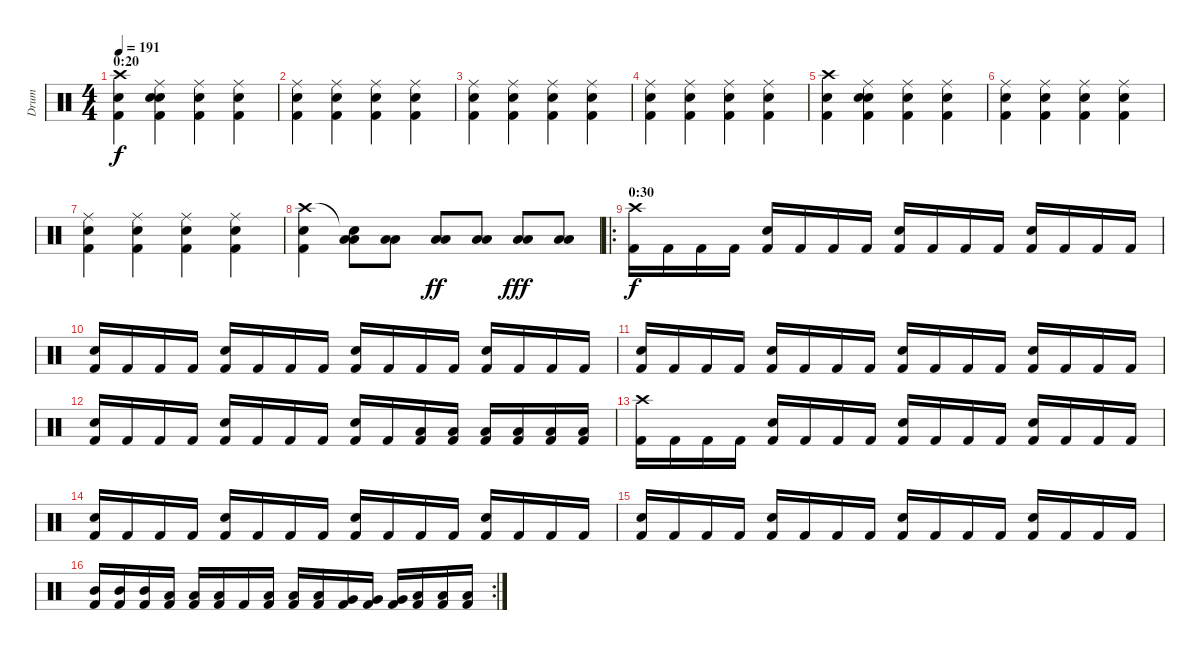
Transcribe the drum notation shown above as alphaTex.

\track ("Drum" "Drum") {instrument percussion}
\staff {score}
\articulation defaults
\ts (4 4)
\section ("" "0:20")
\tempo 191
\clef neutral
\ks c
("Kick (hit) 2" "Snare (hit) 2" "Crash high (hit)").4{dy f} ("Kick (hit) 2" "Snare (hit) 2" "Ride (middle)" "Snare (hit)").4 ("Kick (hit) 2" "Snare (hit) 2" "Ride (middle)").4 ("Kick (hit) 2" "Snare (hit) 2" "Ride (middle)").4 |
("Kick (hit) 2" "Snare (hit) 2" "Ride (middle)").4 ("Kick (hit) 2" "Snare (hit) 2" "Ride (middle)").4 ("Kick (hit) 2" "Snare (hit) 2" "Ride (middle)").4 ("Kick (hit) 2" "Snare (hit) 2" "Ride (middle)").4 |
("Kick (hit) 2" "Snare (hit) 2" "Ride (middle)").4 ("Kick (hit) 2" "Snare (hit) 2" "Ride (middle)").4 ("Kick (hit) 2" "Snare (hit) 2" "Ride (middle)").4 ("Kick (hit) 2" "Snare (hit) 2" "Ride (middle)").4 |
("Kick (hit) 2" "Snare (hit) 2" "Ride (middle)").4 ("Kick (hit) 2" "Snare (hit) 2" "Ride (middle)").4 ("Kick (hit) 2" "Snare (hit) 2" "Ride (middle)").4 ("Kick (hit) 2" "Snare (hit) 2" "Ride (middle)").4 |
("Kick (hit) 2" "Snare (hit) 2" "Crash high (hit)").4 ("Kick (hit) 2" "Snare (hit) 2" "Ride (middle)" "Snare (hit)").4 ("Kick (hit) 2" "Snare (hit) 2" "Ride (middle)").4 ("Kick (hit) 2" "Snare (hit) 2" "Ride (middle)").4 |
("Kick (hit) 2" "Snare (hit) 2" "Ride (middle)").4 ("Kick (hit) 2" "Snare (hit) 2" "Ride (middle)").4 ("Kick (hit) 2" "Snare (hit) 2" "Ride (middle)").4 ("Kick (hit) 2" "Snare (hit) 2" "Ride (middle)").4 |
("Kick (hit) 2" "Snare (hit) 2" "Ride (middle)").4 ("Kick (hit) 2" "Snare (hit) 2" "Ride (middle)").4 ("Kick (hit) 2" "Snare (hit) 2" "Ride (middle)").4 ("Kick (hit) 2" "Snare (hit) 2" "Ride (middle)").4 |
("Kick (hit) 2" "Snare (hit) 2" "Crash high (hit)").4 ("Low Floor Tom (hit)" "Low Floor Tom (hit)" "Snare (hit)"{t}).8 ("Low Floor Tom (hit)" "Low Floor Tom (hit)").8 ("Low Floor Tom (hit)" "Low Floor Tom (hit)").8{dy ff} ("Low Floor Tom (hit)" "Low Floor Tom (hit)").8 ("Low Floor Tom (hit)" "Low Floor Tom (hit)").8{dy fff} ("Low Floor Tom (hit)" "Low Floor Tom (hit)").8 |
\ro
\section ("" "0:30")
("Kick (hit) 2" "Crash high (hit)").16{dy f} "Kick (hit) 2".16 "Kick (hit) 2".16 "Kick (hit) 2".16 ("Kick (hit) 2" "Snare (hit) 2").16 "Kick (hit) 2".16 "Kick (hit) 2".16 "Kick (hit) 2".16 ("Kick (hit) 2" "Snare (hit) 2").16 "Kick (hit) 2".16 "Kick (hit) 2".16 "Kick (hit) 2".16 ("Kick (hit) 2" "Snare (hit) 2").16 "Kick (hit) 2".16 "Kick (hit) 2".16 "Kick (hit) 2".16 |
("Kick (hit) 2" "Snare (hit) 2").16 "Kick (hit) 2".16 "Kick (hit) 2".16 "Kick (hit) 2".16 ("Kick (hit) 2" "Snare (hit) 2").16 "Kick (hit) 2".16 "Kick (hit) 2".16 "Kick (hit) 2".16 ("Kick (hit) 2" "Snare (hit) 2").16 "Kick (hit) 2".16 "Kick (hit) 2".16 "Kick (hit) 2".16 ("Kick (hit) 2" "Snare (hit) 2").16 "Kick (hit) 2".16 "Kick (hit) 2".16 "Kick (hit) 2".16 |
("Kick (hit) 2" "Snare (hit) 2").16 "Kick (hit) 2".16 "Kick (hit) 2".16 "Kick (hit) 2".16 ("Kick (hit) 2" "Snare (hit) 2").16 "Kick (hit) 2".16 "Kick (hit) 2".16 "Kick (hit) 2".16 ("Kick (hit) 2" "Snare (hit) 2").16 "Kick (hit) 2".16 "Kick (hit) 2".16 "Kick (hit) 2".16 ("Kick (hit) 2" "Snare (hit) 2").16 "Kick (hit) 2".16 "Kick (hit) 2".16 "Kick (hit) 2".16 |
("Kick (hit) 2" "Snare (hit) 2").16 "Kick (hit) 2".16 "Kick (hit) 2".16 "Kick (hit) 2".16 ("Kick (hit) 2" "Snare (hit) 2").16 "Kick (hit) 2".16 "Kick (hit) 2".16 "Kick (hit) 2".16 ("Kick (hit) 2" "Snare (hit) 2").16 "Kick (hit) 2".16 ("Kick (hit) 2" "Low Floor Tom (hit)").16 ("Kick (hit) 2" "Low Floor Tom (hit)").16 ("Kick (hit) 2" "Low Floor Tom (hit)").16 ("Kick (hit) 2" "Low Floor Tom (hit)").16 ("Kick (hit) 2" "Low Floor Tom (hit)").16 ("Kick (hit) 2" "Low Floor Tom (hit)").16 |
("Kick (hit) 2" "Crash high (hit)").16 "Kick (hit) 2".16 "Kick (hit) 2".16 "Kick (hit) 2".16 ("Kick (hit) 2" "Snare (hit) 2").16 "Kick (hit) 2".16 "Kick (hit) 2".16 "Kick (hit) 2".16 ("Kick (hit) 2" "Snare (hit) 2").16 "Kick (hit) 2".16 "Kick (hit) 2".16 "Kick (hit) 2".16 ("Kick (hit) 2" "Snare (hit) 2").16 "Kick (hit) 2".16 "Kick (hit) 2".16 "Kick (hit) 2".16 |
("Kick (hit) 2" "Snare (hit) 2").16 "Kick (hit) 2".16 "Kick (hit) 2".16 "Kick (hit) 2".16 ("Kick (hit) 2" "Snare (hit) 2").16 "Kick (hit) 2".16 "Kick (hit) 2".16 "Kick (hit) 2".16 ("Kick (hit) 2" "Snare (hit) 2").16 "Kick (hit) 2".16 "Kick (hit) 2".16 "Kick (hit) 2".16 ("Kick (hit) 2" "Snare (hit) 2").16 "Kick (hit) 2".16 "Kick (hit) 2".16 "Kick (hit) 2".16 |
("Kick (hit) 2" "Snare (hit) 2").16 "Kick (hit) 2".16 "Kick (hit) 2".16 "Kick (hit) 2".16 ("Kick (hit) 2" "Snare (hit) 2").16 "Kick (hit) 2".16 "Kick (hit) 2".16 "Kick (hit) 2".16 ("Kick (hit) 2" "Snare (hit) 2").16 "Kick (hit) 2".16 "Kick (hit) 2".16 "Kick (hit) 2".16 ("Kick (hit) 2" "Snare (hit) 2").16 "Kick (hit) 2".16 "Kick (hit) 2".16 "Kick (hit) 2".16 |
\rc 2
("Kick (hit) 2" "Mid Tom (hit)").16 ("Kick (hit) 2" "Mid Tom (hit)").16 ("Kick (hit) 2" "Mid Tom (hit)").16 ("Kick (hit) 2" "Low Tom (hit)").16 ("Kick (hit) 2" "Low Tom (hit)").16 ("Kick (hit) 2" "Low Tom (hit)").16 "Kick (hit) 2".16 ("Kick (hit) 2" "Low Tom (hit)").16 ("Kick (hit) 2" "Low Tom (hit)").16 ("Kick (hit) 2" "Low Tom (hit)").16 ("Kick (hit) 2" "Very Low Tom (hit)").16 ("Kick (hit) 2" "Very Low Tom (hit)").16 ("Kick (hit) 2" "Very Low Tom (hit)").16 ("Kick (hit) 2" "Low Floor Tom (hit)").16 ("Kick (hit) 2" "Low Floor Tom (hit)").16 ("Kick (hit) 2" "Low Floor Tom (hit)").16
